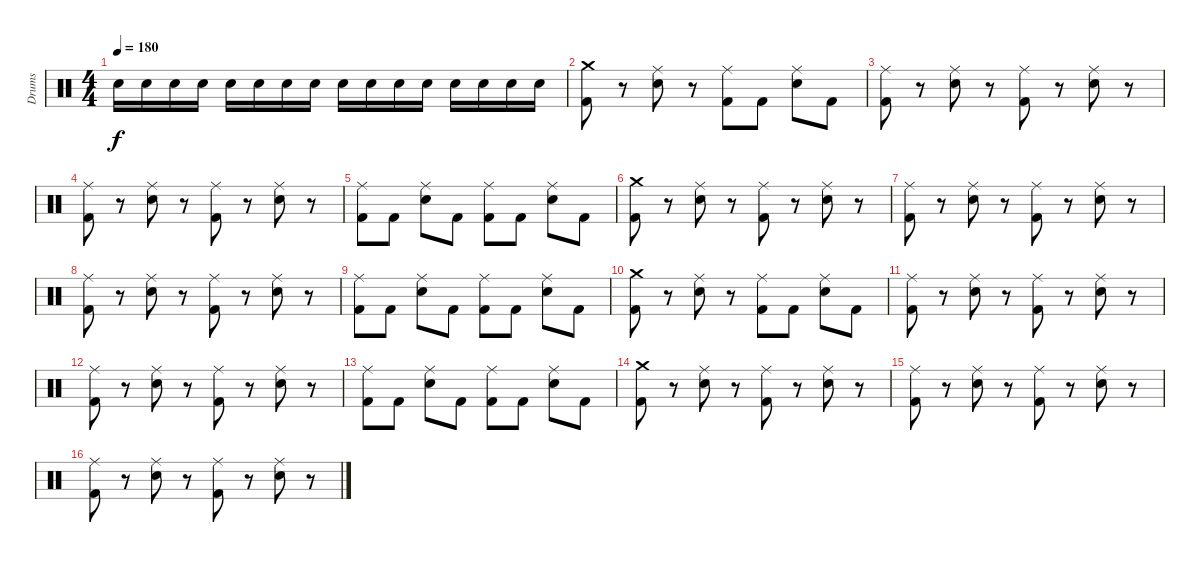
\track ("Drums" "Drums") {instrument percussion}
\staff {score}
\articulation defaults
\ts (4 4)
\tempo 180
\clef neutral
\ks c "Snare (hit) 2".16{dy f} "Snare (hit) 2".16 "Snare (hit) 2".16 "Snare (hit) 2".16 "Snare (hit) 2".16 "Snare (hit) 2".16 "Snare (hit) 2".16 "Snare (hit) 2".16 "Snare (hit) 2".16 "Snare (hit) 2".16 "Snare (hit) 2".16 "Snare (hit) 2".16 "Snare (hit) 2".16 "Snare (hit) 2".16 "Snare (hit) 2".16 "Snare (hit) 2".16
|
("Crash medium (hit)" "Kick (hit) 2").8 r.8 ("Ride (middle)" "Snare (hit) 2").8 r.8 ("Ride (middle)" "Kick (hit) 2").8 "Kick (hit) 2".8 ("Ride (middle)" "Snare (hit) 2").8 "Kick (hit) 2".8 |
("Ride (middle)" "Kick (hit) 2").8 r.8 ("Ride (middle)" "Snare (hit) 2").8 r.8 ("Ride (middle)" "Kick (hit) 2").8 r.8 ("Ride (middle)" "Snare (hit) 2").8 r.8 |
("Ride (middle)" "Kick (hit) 2").8 r.8 ("Ride (middle)" "Snare (hit) 2").8 r.8 ("Ride (middle)" "Kick (hit) 2").8 r.8 ("Ride (middle)" "Snare (hit) 2").8 r.8 |
("Ride (middle)" "Kick (hit) 2").8 "Kick (hit) 2".8 ("Ride (middle)" "Snare (hit) 2").8 "Kick (hit) 2".8 ("Ride (middle)" "Kick (hit) 2").8 "Kick (hit) 2".8 ("Ride (middle)" "Snare (hit) 2").8 "Kick (hit) 2".8 |
("Crash medium (hit)" "Kick (hit) 2").8 r.8 ("Ride (middle)" "Snare (hit) 2").8 r.8 ("Ride (middle)" "Kick (hit) 2").8 r.8 ("Ride (middle)" "Snare (hit) 2").8 r.8 |
("Ride (middle)" "Kick (hit) 2").8 r.8 ("Ride (middle)" "Snare (hit) 2").8 r.8 ("Ride (middle)" "Kick (hit) 2").8 r.8 ("Ride (middle)" "Snare (hit) 2").8 r.8 |
("Ride (middle)" "Kick (hit) 2").8 r.8 ("Ride (middle)" "Snare (hit) 2").8 r.8 ("Ride (middle)" "Kick (hit) 2").8 r.8 ("Ride (middle)" "Snare (hit) 2").8 r.8 |
("Ride (middle)" "Kick (hit) 2").8 "Kick (hit) 2".8 ("Ride (middle)" "Snare (hit) 2").8 "Kick (hit) 2".8 ("Ride (middle)" "Kick (hit) 2").8 "Kick (hit) 2".8 ("Ride (middle)" "Snare (hit) 2").8 "Kick (hit) 2".8 |
("Crash medium (hit)" "Kick (hit) 2").8 r.8 ("Ride (middle)" "Snare (hit) 2").8 r.8 ("Ride (middle)" "Kick (hit) 2").8 "Kick (hit) 2".8 ("Ride (middle)" "Snare (hit) 2").8 "Kick (hit) 2".8 |
("Ride (middle)" "Kick (hit) 2").8 r.8 ("Ride (middle)" "Snare (hit) 2").8 r.8 ("Ride (middle)" "Kick (hit) 2").8 r.8 ("Ride (middle)" "Snare (hit) 2").8 r.8 |
("Ride (middle)" "Kick (hit) 2").8 r.8 ("Ride (middle)" "Snare (hit) 2").8 r.8 ("Ride (middle)" "Kick (hit) 2").8 r.8 ("Ride (middle)" "Snare (hit) 2").8 r.8 |
("Ride (middle)" "Kick (hit) 2").8 "Kick (hit) 2".8 ("Ride (middle)" "Snare (hit) 2").8 "Kick (hit) 2".8 ("Ride (middle)" "Kick (hit) 2").8 "Kick (hit) 2".8 ("Ride (middle)" "Snare (hit) 2").8 "Kick (hit) 2".8 |
("Crash medium (hit)" "Kick (hit) 2").8 r.8 ("Ride (middle)" "Snare (hit) 2").8 r.8 ("Ride (middle)" "Kick (hit) 2").8 r.8 ("Ride (middle)" "Snare (hit) 2").8 r.8 |
("Ride (middle)" "Kick (hit) 2").8 r.8 ("Ride (middle)" "Snare (hit) 2").8 r.8 ("Ride (middle)" "Kick (hit) 2").8 r.8 ("Ride (middle)" "Snare (hit) 2").8 r.8 |
("Ride (middle)" "Kick (hit) 2").8 r.8 ("Ride (middle)" "Snare (hit) 2").8 r.8 ("Ride (middle)" "Kick (hit) 2").8 r.8 ("Ride (middle)" "Snare (hit) 2").8 r.8
